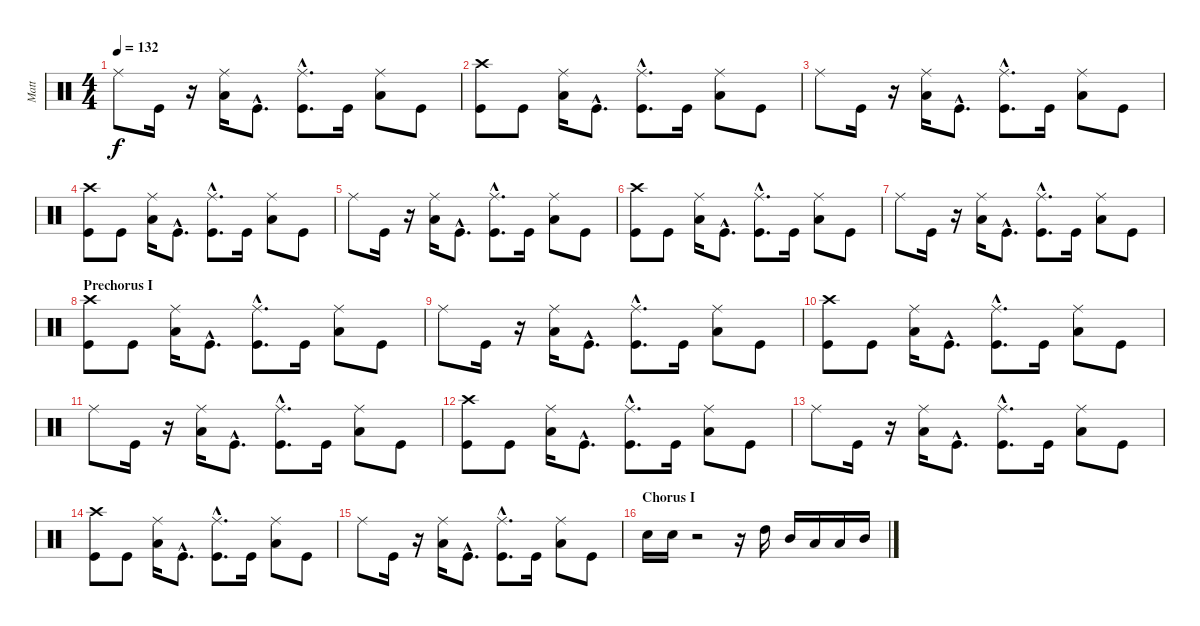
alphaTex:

\track ("Matt" "Matt") {instrument percussion}
\staff {score}
\articulation defaults
\ts (4 4)
\tempo 132
\clef neutral
\ks c "Ride (middle)".8{dy f} "Kick (hit)".16
r.16 ("Low Tom (hit)" "Ride (middle)").16 "Kick (hit)"{hac}.8{d} ("Kick (hit)"{hac} "Ride (middle)").8{d} "Kick (hit)".16 ("Ride (middle)" "Low Tom (hit)").8 "Kick (hit)".8 |
("Crash high (hit)" "Kick (hit)").8 "Kick (hit)".8 ("Low Tom (hit)" "Ride (middle)").16 "Kick (hit)"{hac}.8{d} ("Kick (hit)"{hac} "Ride (middle)").8{d} "Kick (hit)".16 ("Low Tom (hit)" "Ride (middle)").8 "Kick (hit)".8 |
"Ride (middle)".8 "Kick (hit)".16 r.16 ("Ride (middle)" "Low Tom (hit)").16 "Kick (hit)"{hac}.8{d} ("Kick (hit)"{hac} "Ride (middle)").8{d} "Kick (hit)".16 ("Low Tom (hit)" "Ride (middle)").8 "Kick (hit)".8 |
("Kick (hit)" "Crash high (hit)").8 "Kick (hit)".8 ("Low Tom (hit)" "Ride (middle)").16 "Kick (hit)"{hac}.8{d} ("Kick (hit)"{hac} "Ride (middle)").8{d} "Kick (hit)".16 ("Ride (middle)" "Low Tom (hit)").8 "Kick (hit)".8 |
"Ride (middle)".8 "Kick (hit)".16 r.16 ("Ride (middle)" "Low Tom (hit)").16 "Kick (hit)"{hac}.8{d} ("Ride (middle)" "Kick (hit)"{hac}).8{d} "Kick (hit)".16 ("Ride (middle)" "Low Tom (hit)").8 "Kick (hit)".8 |
("Kick (hit)" "Crash high (hit)").8 "Kick (hit)".8 ("Ride (middle)" "Low Tom (hit)").16 "Kick (hit)"{hac}.8{d} ("Kick (hit)"{hac} "Ride (middle)").8{d} "Kick (hit)".16 ("Ride (middle)" "Low Tom (hit)").8 "Kick (hit)".8 |
"Ride (middle)".8 "Kick (hit)".16 r.16 ("Low Tom (hit)" "Ride (middle)").16 "Kick (hit)"{hac}.8{d} ("Kick (hit)"{hac} "Ride (middle)").8{d} "Kick (hit)".16 ("Ride (middle)" "Low Tom (hit)").8 "Kick (hit)".8 |
\section ("" "Prechorus I")
("Kick (hit)" "Crash high (hit)").8 "Kick (hit)".8 ("Ride (middle)" "Low Tom (hit)").16 "Kick (hit)"{hac}.8{d} ("Kick (hit)"{hac} "Ride (middle)").8{d} "Kick (hit)".16 ("Low Tom (hit)" "Ride (middle)").8 "Kick (hit)".8 |
"Ride (middle)".8 "Kick (hit)".16 r.16 ("Ride (middle)" "Low Tom (hit)").16 "Kick (hit)"{hac}.8{d} ("Ride (middle)" "Kick (hit)"{hac}).8{d} "Kick (hit)".16 ("Ride (middle)" "Low Tom (hit)").8 "Kick (hit)".8 |
("Kick (hit)" "Crash high (hit)").8 "Kick (hit)".8 ("Low Tom (hit)" "Ride (middle)").16 "Kick (hit)"{hac}.8{d} ("Ride (middle)" "Kick (hit)"{hac}).8{d} "Kick (hit)".16 ("Ride (middle)" "Low Tom (hit)").8 "Kick (hit)".8 |
"Ride (middle)".8 "Kick (hit)".16 r.16 ("Ride (middle)" "Low Tom (hit)").16 "Kick (hit)"{hac}.8{d} ("Kick (hit)"{hac} "Ride (middle)").8{d} "Kick (hit)".16 ("Low Tom (hit)" "Ride (middle)").8 "Kick (hit)".8 |
("Crash high (hit)" "Kick (hit)").8 "Kick (hit)".8 ("Ride (middle)" "Low Tom (hit)").16 "Kick (hit)"{hac}.8{d} ("Kick (hit)"{hac} "Ride (middle)").8{d} "Kick (hit)".16 ("Low Tom (hit)" "Ride (middle)").8 "Kick (hit)".8 |
"Ride (middle)".8 "Kick (hit)".16 r.16 ("Low Tom (hit)" "Ride (middle)").16 "Kick (hit)"{hac}.8{d} ("Ride (middle)" "Kick (hit)"{hac}).8{d} "Kick (hit)".16 ("Low Tom (hit)" "Ride (middle)").8 "Kick (hit)".8 |
("Crash high (hit)" "Kick (hit)").8 "Kick (hit)".8 ("Ride (middle)" "Low Tom (hit)").16 "Kick (hit)"{hac}.8{d} ("Ride (middle)" "Kick (hit)"{hac}).8{d} "Kick (hit)".16 ("Ride (middle)" "Low Tom (hit)").8 "Kick (hit)".8 |
"Ride (middle)".8 "Kick (hit)".16 r.16 ("Low Tom (hit)" "Ride (middle)").16 "Kick (hit)"{hac}.8{d} ("Kick (hit)"{hac} "Ride (middle)").8{d} "Kick (hit)".16 ("Ride (middle)" "Low Tom (hit)").8 "Kick (hit)".8 |
\section ("" "Chorus I")
"Electric Snare (hit)".16 "Electric Snare (hit)".16 r.2 r.16 "High Tom (hit)".16 "Mid Tom (hit)".16 "Low Tom (hit)".16 "Low Tom (hit)".16 "Mid Tom (hit)".16
